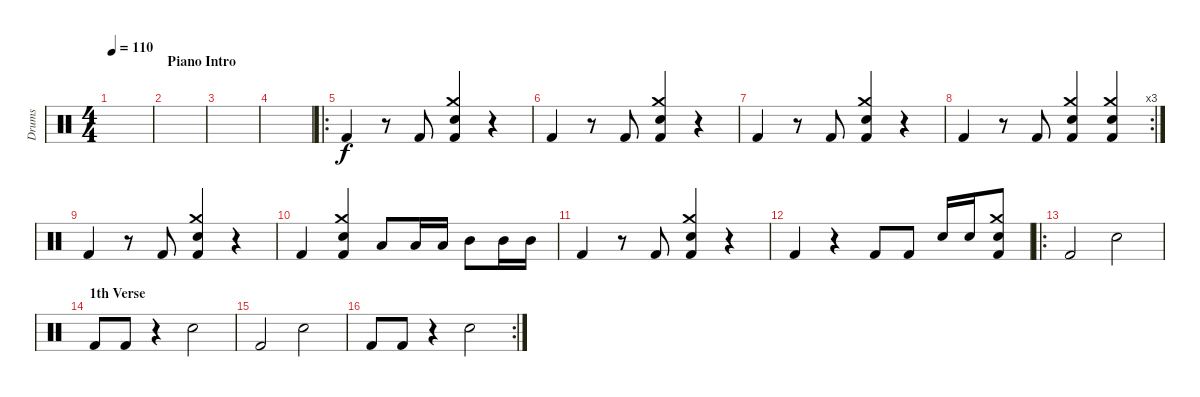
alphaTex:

\track ("Drums" "Drums") {instrument percussion}
\staff {score}
\articulation defaults
\ts (4 4)
\tempo 110
\clef neutral
\ks c
|
\section ("" "Piano Intro")
|
|
|
\ro "Kick (hit) 2".4
r.8 "Kick (hit) 2".8 ("Crash medium (hit)" "Electric Snare (hit)" "Kick (hit) 2").4 r.4 |
"Kick (hit) 2".4 r.8 "Kick (hit) 2".8 ("Crash medium (hit)" "Electric Snare (hit)" "Kick (hit) 2").4 r.4 |
"Kick (hit) 2".4 r.8 "Kick (hit) 2".8 ("Crash medium (hit)" "Electric Snare (hit)" "Kick (hit) 2").4 r.4 |
\rc 3 "Kick (hit) 2".4
r.8 "Kick (hit) 2".8 ("Crash medium (hit)" "Electric Snare (hit)" "Kick (hit) 2").4 ("Crash medium (hit)" "Electric Snare (hit)" "Kick (hit) 2").4 |
"Kick (hit) 2".4 r.8 "Kick (hit) 2".8 ("Crash medium (hit)" "Electric Snare (hit)" "Kick (hit) 2").4 r.4 |
"Kick (hit) 2".4 ("Crash medium (hit)" "Electric Snare (hit)" "Kick (hit) 2").4 "Low Tom (hit)".8 "Low Tom (hit)".16 "Low Tom (hit)".16 "Mid Tom (hit)".8 "Mid Tom (hit)".16 "Mid Tom (hit)".16 |
"Kick (hit) 2".4 r.8 "Kick (hit) 2".8 ("Crash medium (hit)" "Electric Snare (hit)" "Kick (hit) 2").4 r.4 |
"Kick (hit) 2".4 r.4 "Kick (hit) 2".8 "Kick (hit) 2".8 "Electric Snare (hit)".16 "Electric Snare (hit)".16 ("Crash medium (hit)" "Electric Snare (hit)" "Kick (hit) 2").8 |
\ro "Kick (hit) 2".2 "Electric Snare (hit)".2
|
\section ("" "1th Verse")
"Kick (hit) 2".8 "Kick (hit) 2".8 r.4 "Electric Snare (hit)".2 |
"Kick (hit) 2".2 "Electric Snare (hit)".2 |
\rc 2 "Kick (hit) 2".8 "Kick (hit) 2".8
r.4 "Electric Snare (hit)".2
